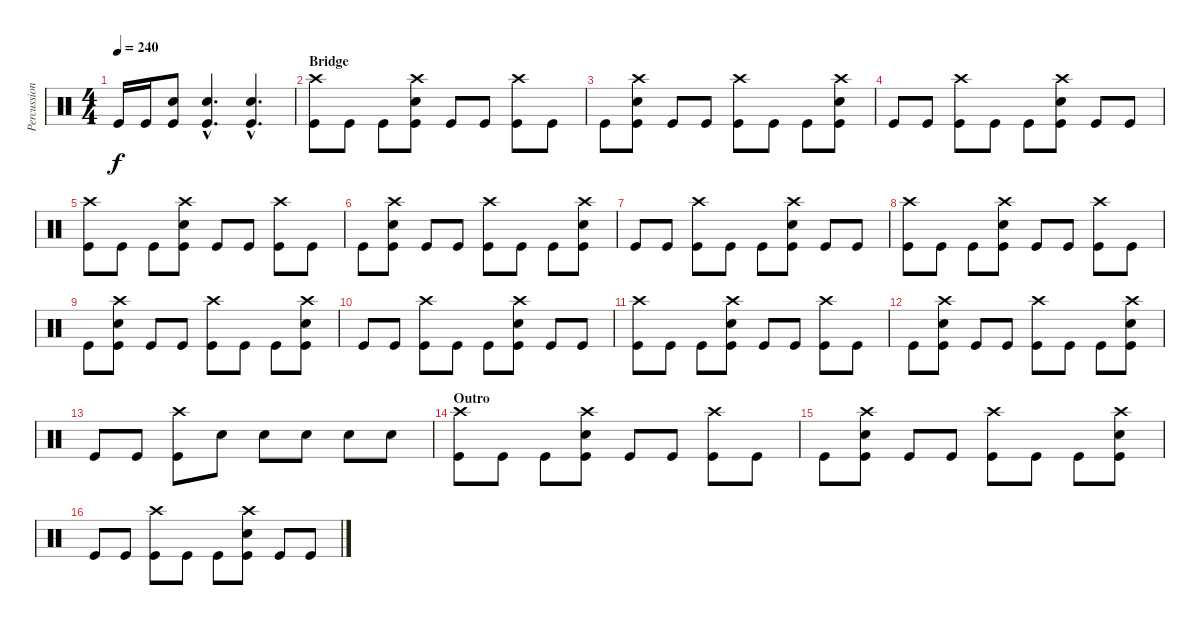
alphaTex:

\track ("Percussion" "Percussion") {instrument percussion}
\staff {score}
\articulation defaults
\ts (4 4)
\tempo 240
\clef neutral
\ks c "Kick (hit)".16{dy f} "Kick (hit)".16
("Electric Snare (hit)" "Kick (hit)").8 ("Electric Snare (hit)"{hac} "Kick (hit)"{hac}).4{d} ("Electric Snare (hit)"{hac} "Kick (hit)"{hac}).4{d} |
\section ("" "Bridge")
("Crash high (hit)" "Kick (hit)").8 "Kick (hit)".8 "Kick (hit)".8 ("Electric Snare (hit)" "Crash high (hit)" "Kick (hit)").8 "Kick (hit)".8 "Kick (hit)".8 ("Crash high (hit)" "Kick (hit)").8 "Kick (hit)".8 |
"Kick (hit)".8 ("Electric Snare (hit)" "Crash high (hit)" "Kick (hit)").8 "Kick (hit)".8 "Kick (hit)".8 ("Crash high (hit)" "Kick (hit)").8 "Kick (hit)".8 "Kick (hit)".8 ("Electric Snare (hit)" "Crash high (hit)" "Kick (hit)").8 |
"Kick (hit)".8 "Kick (hit)".8 ("Crash high (hit)" "Kick (hit)").8 "Kick (hit)".8 "Kick (hit)".8 ("Electric Snare (hit)" "Crash high (hit)" "Kick (hit)").8 "Kick (hit)".8 "Kick (hit)".8 |
("Crash high (hit)" "Kick (hit)").8 "Kick (hit)".8 "Kick (hit)".8 ("Electric Snare (hit)" "Crash high (hit)" "Kick (hit)").8 "Kick (hit)".8 "Kick (hit)".8 ("Crash high (hit)" "Kick (hit)").8 "Kick (hit)".8 |
"Kick (hit)".8 ("Electric Snare (hit)" "Crash high (hit)" "Kick (hit)").8 "Kick (hit)".8 "Kick (hit)".8 ("Crash high (hit)" "Kick (hit)").8 "Kick (hit)".8 "Kick (hit)".8 ("Electric Snare (hit)" "Crash high (hit)" "Kick (hit)").8 |
"Kick (hit)".8 "Kick (hit)".8 ("Crash high (hit)" "Kick (hit)").8 "Kick (hit)".8 "Kick (hit)".8 ("Electric Snare (hit)" "Crash high (hit)" "Kick (hit)").8 "Kick (hit)".8 "Kick (hit)".8 |
("Crash high (hit)" "Kick (hit)").8 "Kick (hit)".8 "Kick (hit)".8 ("Electric Snare (hit)" "Crash high (hit)" "Kick (hit)").8 "Kick (hit)".8 "Kick (hit)".8 ("Crash high (hit)" "Kick (hit)").8 "Kick (hit)".8 |
"Kick (hit)".8 ("Electric Snare (hit)" "Crash high (hit)" "Kick (hit)").8 "Kick (hit)".8 "Kick (hit)".8 ("Crash high (hit)" "Kick (hit)").8 "Kick (hit)".8 "Kick (hit)".8 ("Electric Snare (hit)" "Crash high (hit)" "Kick (hit)").8 |
"Kick (hit)".8 "Kick (hit)".8 ("Crash high (hit)" "Kick (hit)").8 "Kick (hit)".8 "Kick (hit)".8 ("Electric Snare (hit)" "Crash high (hit)" "Kick (hit)").8 "Kick (hit)".8 "Kick (hit)".8 |
("Crash high (hit)" "Kick (hit)").8 "Kick (hit)".8 "Kick (hit)".8 ("Electric Snare (hit)" "Crash high (hit)" "Kick (hit)").8 "Kick (hit)".8 "Kick (hit)".8 ("Crash high (hit)" "Kick (hit)").8 "Kick (hit)".8 |
"Kick (hit)".8 ("Electric Snare (hit)" "Crash high (hit)" "Kick (hit)").8 "Kick (hit)".8 "Kick (hit)".8 ("Crash high (hit)" "Kick (hit)").8 "Kick (hit)".8 "Kick (hit)".8 ("Electric Snare (hit)" "Crash high (hit)" "Kick (hit)").8 |
"Kick (hit)".8 "Kick (hit)".8 ("Crash high (hit)" "Kick (hit)").8 "Electric Snare (hit)".8 "Electric Snare (hit)".8 "Electric Snare (hit)".8 "Electric Snare (hit)".8 "Electric Snare (hit)".8 |
\section ("" "Outro")
("Crash high (hit)" "Kick (hit)").8 "Kick (hit)".8 "Kick (hit)".8 ("Crash high (hit)" "Electric Snare (hit)" "Kick (hit)").8 "Kick (hit)".8 "Kick (hit)".8 ("Crash high (hit)" "Kick (hit)").8 "Kick (hit)".8 |
"Kick (hit)".8 ("Crash high (hit)" "Electric Snare (hit)" "Kick (hit)").8 "Kick (hit)".8 "Kick (hit)".8 ("Crash high (hit)" "Kick (hit)").8 "Kick (hit)".8 "Kick (hit)".8 ("Crash high (hit)" "Electric Snare (hit)" "Kick (hit)").8 |
"Kick (hit)".8 "Kick (hit)".8 ("Crash high (hit)" "Kick (hit)").8 "Kick (hit)".8 "Kick (hit)".8 ("Crash high (hit)" "Electric Snare (hit)" "Kick (hit)").8 "Kick (hit)".8 "Kick (hit)".8
